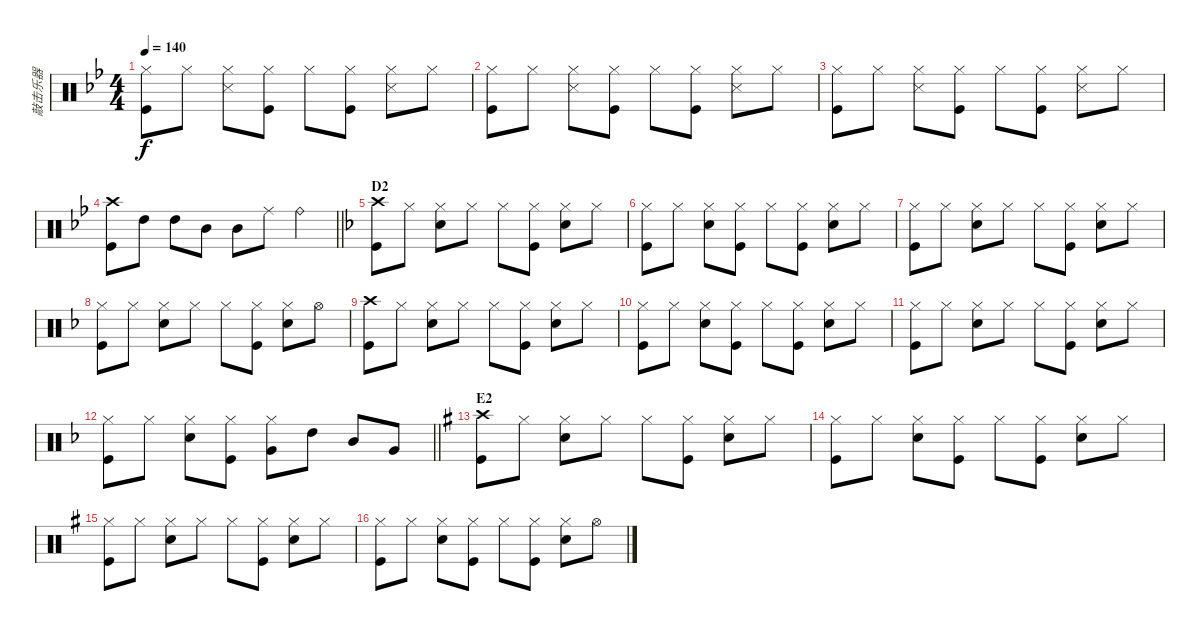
\track ("敲击乐器" "敲击乐器") {instrument percussion}
\staff {score}
\articulation defaults
\ts (4 4)
\tempo 140
\clef neutral
\ks bb
("Hi-Hat (closed)" "Kick (hit)").8{dy f} "Hi-Hat (closed)".8 ("Hi-Hat (closed)" "Snare (side stick) 3").8 ("Hi-Hat (closed)" "Kick (hit)").8 "Hi-Hat (closed)".8 ("Hi-Hat (closed)" "Kick (hit)").8 ("Hi-Hat (closed)" "Snare (side stick) 3").8 "Hi-Hat (closed)".8 |
("Hi-Hat (closed)" "Kick (hit)").8 "Hi-Hat (closed)".8 ("Hi-Hat (closed)" "Snare (side stick) 3").8 ("Hi-Hat (closed)" "Kick (hit)").8 "Hi-Hat (closed)".8 ("Hi-Hat (closed)" "Kick (hit)").8 ("Hi-Hat (closed)" "Snare (side stick) 3").8 "Hi-Hat (closed)".8 |
("Hi-Hat (closed)" "Kick (hit)").8 "Hi-Hat (closed)".8 ("Hi-Hat (closed)" "Snare (side stick) 3").8 ("Hi-Hat (closed)" "Kick (hit)").8 "Hi-Hat (closed)".8 ("Hi-Hat (closed)" "Kick (hit)").8 ("Hi-Hat (closed)" "Snare (side stick) 3").8 "Hi-Hat (closed)".8 |
\barLineRight lightlight
("Crash high (hit)" "Kick (hit)").8 "High Tom (hit)".8 "High Tom (hit)".8 "Mid Tom (hit)".8 "Mid Tom (hit)".8 "Ride (middle)".8 "Ride (bell)".4 |
\section ("" "D2")
\ks f
("Crash high (hit)" "Kick (hit)").8 "Hi-Hat (closed)".8 ("Hi-Hat (closed)" "Snare (hit) 2").8 "Hi-Hat (closed)".8 "Hi-Hat (closed)".8 ("Hi-Hat (closed)" "Kick (hit)").8 ("Hi-Hat (closed)" "Snare (hit) 2").8 "Hi-Hat (closed)".8 |
("Hi-Hat (closed)" "Kick (hit)").8 "Hi-Hat (closed)".8 ("Hi-Hat (closed)" "Snare (hit) 2").8 ("Hi-Hat (closed)" "Kick (hit)").8 "Hi-Hat (closed)".8 ("Hi-Hat (closed)" "Kick (hit)").8 ("Hi-Hat (closed)" "Snare (hit) 2").8 "Hi-Hat (closed)".8 |
("Hi-Hat (closed)" "Kick (hit)").8 "Hi-Hat (closed)".8 ("Hi-Hat (closed)" "Snare (hit) 2").8 "Hi-Hat (closed)".8 "Hi-Hat (closed)".8 ("Hi-Hat (closed)" "Kick (hit)").8 ("Hi-Hat (closed)" "Snare (hit) 2").8 "Hi-Hat (closed)".8 |
("Hi-Hat (closed)" "Kick (hit)").8 "Hi-Hat (closed)".8 ("Hi-Hat (closed)" "Snare (hit) 2").8 "Hi-Hat (closed)".8 "Hi-Hat (closed)".8 ("Hi-Hat (closed)" "Kick (hit)").8 ("Hi-Hat (closed)" "Snare (hit) 2").8 "Hi-Hat (open)".8 |
("Crash high (hit)" "Kick (hit)").8 "Hi-Hat (closed)".8 ("Hi-Hat (closed)" "Snare (hit) 2").8 "Hi-Hat (closed)".8 "Hi-Hat (closed)".8 ("Hi-Hat (closed)" "Kick (hit)").8 ("Hi-Hat (closed)" "Snare (hit) 2").8 "Hi-Hat (closed)".8 |
("Hi-Hat (closed)" "Kick (hit)").8 "Hi-Hat (closed)".8 ("Hi-Hat (closed)" "Snare (hit) 2").8 ("Hi-Hat (closed)" "Kick (hit)").8 "Hi-Hat (closed)".8 ("Hi-Hat (closed)" "Kick (hit)").8 ("Hi-Hat (closed)" "Snare (hit) 2").8 "Hi-Hat (closed)".8 |
("Hi-Hat (closed)" "Kick (hit)").8 "Hi-Hat (closed)".8 ("Hi-Hat (closed)" "Snare (hit) 2").8 "Hi-Hat (closed)".8 "Hi-Hat (closed)".8 ("Hi-Hat (closed)" "Kick (hit)").8 ("Hi-Hat (closed)" "Snare (hit) 2").8 "Hi-Hat (closed)".8 |
\barLineRight lightlight
("Hi-Hat (closed)" "Kick (hit)").8 "Hi-Hat (closed)".8 ("Hi-Hat (closed)" "Snare (hit) 2").8 ("Hi-Hat (closed)" "Kick (hit)").8 ("Hi-Hat (closed)" "Very Low Tom (hit)").8 "High Tom (hit)".8 "Mid Tom (hit)".8 "Very Low Tom (hit)".8 |
\section ("" "E2")
\ks g
("Crash high (hit)" "Kick (hit)").8 "Hi-Hat (closed)".8 ("Hi-Hat (closed)" "Snare (hit) 2").8 "Hi-Hat (closed)".8 "Hi-Hat (closed)".8 ("Hi-Hat (closed)" "Kick (hit)").8 ("Hi-Hat (closed)" "Snare (hit) 2").8 "Hi-Hat (closed)".8 |
("Hi-Hat (closed)" "Kick (hit)").8 "Hi-Hat (closed)".8 ("Hi-Hat (closed)" "Snare (hit) 2").8 ("Hi-Hat (closed)" "Kick (hit)").8 "Hi-Hat (closed)".8 ("Hi-Hat (closed)" "Kick (hit)").8 ("Hi-Hat (closed)" "Snare (hit) 2").8 "Hi-Hat (closed)".8 |
("Hi-Hat (closed)" "Kick (hit)").8 "Hi-Hat (closed)".8 ("Hi-Hat (closed)" "Snare (hit) 2").8 "Hi-Hat (closed)".8 "Hi-Hat (closed)".8 ("Hi-Hat (closed)" "Kick (hit)").8 ("Hi-Hat (closed)" "Snare (hit) 2").8 "Hi-Hat (closed)".8 |
("Hi-Hat (closed)" "Kick (hit)").8 "Hi-Hat (closed)".8 ("Hi-Hat (closed)" "Snare (hit) 2").8 ("Hi-Hat (closed)" "Kick (hit)").8 "Hi-Hat (closed)".8 ("Hi-Hat (closed)" "Kick (hit)").8 ("Hi-Hat (closed)" "Snare (hit) 2").8 "Hi-Hat (open)".8
